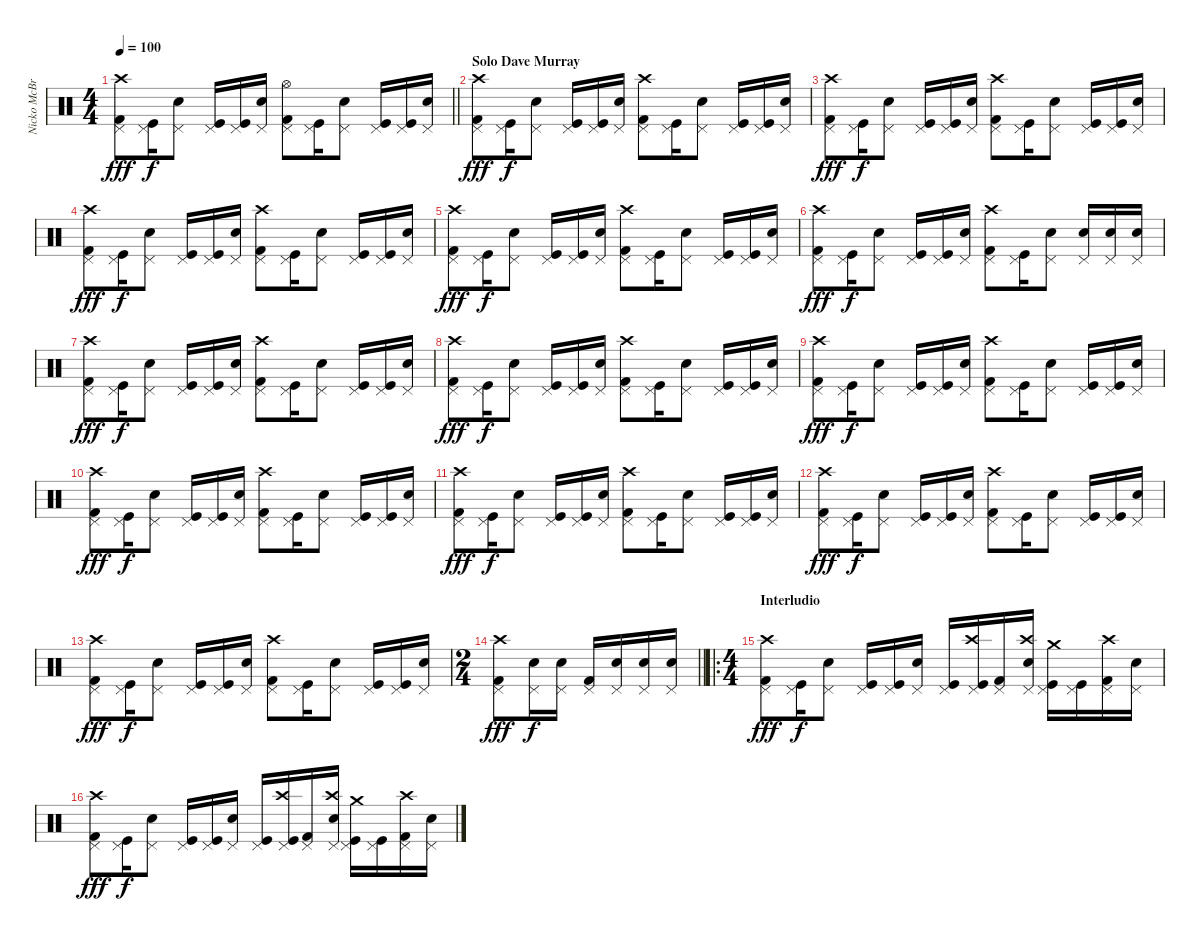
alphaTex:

\track ("Nicko McBrain" "Nicko McBr") {instrument percussion}
\staff {score}
\articulation defaults
\ts (4 4)
\tempo 100
\clef neutral
\barLineRight lightlight
\ks c
("Kick (hit) 2" "Pedal Hi-Hat (hit)" "Crash high (hit)").8{dy fff} ("Kick (hit)" "Pedal Hi-Hat (hit)").16{dy f} ("Snare (hit) 2" "Pedal Hi-Hat (hit)").8 ("Kick (hit)" "Pedal Hi-Hat (hit)").16 ("Kick (hit)" "Pedal Hi-Hat (hit)").16 ("Snare (hit) 2" "Pedal Hi-Hat (hit)").16 ("Kick (hit) 2" "Pedal Hi-Hat (hit)" "Hi-Hat (open)").8 ("Kick (hit)" "Pedal Hi-Hat (hit)").16 ("Snare (hit) 2" "Pedal Hi-Hat (hit)").8 ("Kick (hit)" "Pedal Hi-Hat (hit)").16 ("Kick (hit)" "Pedal Hi-Hat (hit)").16 ("Snare (hit) 2" "Pedal Hi-Hat (hit)").16 |
\section ("" "Solo Dave Murray")
("Kick (hit) 2" "Pedal Hi-Hat (hit)" "Crash high (hit)").8{dy fff} ("Kick (hit)" "Pedal Hi-Hat (hit)").16{dy f} ("Snare (hit) 2" "Pedal Hi-Hat (hit)").8 ("Kick (hit)" "Pedal Hi-Hat (hit)").16 ("Kick (hit)" "Pedal Hi-Hat (hit)").16 ("Snare (hit) 2" "Pedal Hi-Hat (hit)").16 ("Kick (hit) 2" "Pedal Hi-Hat (hit)" "Crash high (hit)").8 ("Kick (hit)" "Pedal Hi-Hat (hit)").16 ("Snare (hit) 2" "Pedal Hi-Hat (hit)").8 ("Kick (hit)" "Pedal Hi-Hat (hit)").16 ("Kick (hit)" "Pedal Hi-Hat (hit)").16 ("Snare (hit) 2" "Pedal Hi-Hat (hit)").16 |
("Kick (hit) 2" "Pedal Hi-Hat (hit)" "Crash high (hit)").8{dy fff} ("Kick (hit)" "Pedal Hi-Hat (hit)").16{dy f} ("Snare (hit) 2" "Pedal Hi-Hat (hit)").8 ("Kick (hit)" "Pedal Hi-Hat (hit)").16 ("Kick (hit)" "Pedal Hi-Hat (hit)").16 ("Snare (hit) 2" "Pedal Hi-Hat (hit)").16 ("Kick (hit) 2" "Pedal Hi-Hat (hit)" "Crash high (hit)").8 ("Kick (hit)" "Pedal Hi-Hat (hit)").16 ("Snare (hit) 2" "Pedal Hi-Hat (hit)").8 ("Kick (hit)" "Pedal Hi-Hat (hit)").16 ("Kick (hit)" "Pedal Hi-Hat (hit)").16 ("Snare (hit) 2" "Pedal Hi-Hat (hit)").16 |
("Kick (hit) 2" "Pedal Hi-Hat (hit)" "Crash high (hit)").8{dy fff} ("Kick (hit)" "Pedal Hi-Hat (hit)").16{dy f} ("Snare (hit) 2" "Pedal Hi-Hat (hit)").8 ("Kick (hit)" "Pedal Hi-Hat (hit)").16 ("Kick (hit)" "Pedal Hi-Hat (hit)").16 ("Snare (hit) 2" "Pedal Hi-Hat (hit)").16 ("Kick (hit) 2" "Pedal Hi-Hat (hit)" "Crash high (hit)").8 ("Kick (hit)" "Pedal Hi-Hat (hit)").16 ("Snare (hit) 2" "Pedal Hi-Hat (hit)").8 ("Kick (hit)" "Pedal Hi-Hat (hit)").16 ("Kick (hit)" "Pedal Hi-Hat (hit)").16 ("Snare (hit) 2" "Pedal Hi-Hat (hit)").16 |
("Kick (hit) 2" "Pedal Hi-Hat (hit)" "Crash high (hit)").8{dy fff} ("Kick (hit)" "Pedal Hi-Hat (hit)").16{dy f} ("Snare (hit) 2" "Pedal Hi-Hat (hit)").8 ("Kick (hit)" "Pedal Hi-Hat (hit)").16 ("Kick (hit)" "Pedal Hi-Hat (hit)").16 ("Snare (hit) 2" "Pedal Hi-Hat (hit)").16 ("Kick (hit) 2" "Pedal Hi-Hat (hit)" "Crash high (hit)").8 ("Kick (hit)" "Pedal Hi-Hat (hit)").16 ("Snare (hit) 2" "Pedal Hi-Hat (hit)").8 ("Kick (hit)" "Pedal Hi-Hat (hit)").16 ("Kick (hit)" "Pedal Hi-Hat (hit)").16 ("Snare (hit) 2" "Pedal Hi-Hat (hit)").16 |
("Kick (hit) 2" "Pedal Hi-Hat (hit)" "Crash high (hit)").8{dy fff} ("Kick (hit)" "Pedal Hi-Hat (hit)").16{dy f} ("Snare (hit) 2" "Pedal Hi-Hat (hit)").8 ("Kick (hit)" "Pedal Hi-Hat (hit)").16 ("Kick (hit)" "Pedal Hi-Hat (hit)").16 ("Snare (hit) 2" "Pedal Hi-Hat (hit)").16 ("Kick (hit) 2" "Pedal Hi-Hat (hit)" "Crash high (hit)").8 ("Kick (hit)" "Pedal Hi-Hat (hit)").16 ("Snare (hit) 2" "Pedal Hi-Hat (hit)").8 ("Snare (hit) 2" "Pedal Hi-Hat (hit)").16 ("Snare (hit) 2" "Pedal Hi-Hat (hit)").16 ("Snare (hit) 2" "Pedal Hi-Hat (hit)").16 |
("Kick (hit) 2" "Pedal Hi-Hat (hit)" "Crash high (hit)").8{dy fff} ("Kick (hit)" "Pedal Hi-Hat (hit)").16{dy f} ("Snare (hit) 2" "Pedal Hi-Hat (hit)").8 ("Kick (hit)" "Pedal Hi-Hat (hit)").16 ("Kick (hit)" "Pedal Hi-Hat (hit)").16 ("Snare (hit) 2" "Pedal Hi-Hat (hit)").16 ("Kick (hit) 2" "Pedal Hi-Hat (hit)" "Crash high (hit)").8 ("Kick (hit)" "Pedal Hi-Hat (hit)").16 ("Snare (hit) 2" "Pedal Hi-Hat (hit)").8 ("Kick (hit)" "Pedal Hi-Hat (hit)").16 ("Kick (hit)" "Pedal Hi-Hat (hit)").16 ("Snare (hit) 2" "Pedal Hi-Hat (hit)").16 |
("Kick (hit) 2" "Pedal Hi-Hat (hit)" "Crash high (hit)").8{dy fff} ("Kick (hit)" "Pedal Hi-Hat (hit)").16{dy f} ("Snare (hit) 2" "Pedal Hi-Hat (hit)").8 ("Kick (hit)" "Pedal Hi-Hat (hit)").16 ("Kick (hit)" "Pedal Hi-Hat (hit)").16 ("Snare (hit) 2" "Pedal Hi-Hat (hit)").16 ("Kick (hit) 2" "Pedal Hi-Hat (hit)" "Crash high (hit)").8 ("Kick (hit)" "Pedal Hi-Hat (hit)").16 ("Snare (hit) 2" "Pedal Hi-Hat (hit)").8 ("Kick (hit)" "Pedal Hi-Hat (hit)").16 ("Kick (hit)" "Pedal Hi-Hat (hit)").16 ("Snare (hit) 2" "Pedal Hi-Hat (hit)").16 |
("Kick (hit) 2" "Pedal Hi-Hat (hit)" "Crash high (hit)").8{dy fff} ("Kick (hit)" "Pedal Hi-Hat (hit)").16{dy f} ("Snare (hit) 2" "Pedal Hi-Hat (hit)").8 ("Kick (hit)" "Pedal Hi-Hat (hit)").16 ("Kick (hit)" "Pedal Hi-Hat (hit)").16 ("Snare (hit) 2" "Pedal Hi-Hat (hit)").16 ("Kick (hit) 2" "Pedal Hi-Hat (hit)" "Crash high (hit)").8 ("Kick (hit)" "Pedal Hi-Hat (hit)").16 ("Snare (hit) 2" "Pedal Hi-Hat (hit)").8 ("Kick (hit)" "Pedal Hi-Hat (hit)").16 ("Kick (hit)" "Pedal Hi-Hat (hit)").16 ("Snare (hit) 2" "Pedal Hi-Hat (hit)").16 |
("Kick (hit) 2" "Pedal Hi-Hat (hit)" "Crash high (hit)").8{dy fff} ("Kick (hit)" "Pedal Hi-Hat (hit)").16{dy f} ("Snare (hit) 2" "Pedal Hi-Hat (hit)").8 ("Kick (hit)" "Pedal Hi-Hat (hit)").16 ("Kick (hit)" "Pedal Hi-Hat (hit)").16 ("Snare (hit) 2" "Pedal Hi-Hat (hit)").16 ("Kick (hit) 2" "Pedal Hi-Hat (hit)" "Crash high (hit)").8 ("Kick (hit)" "Pedal Hi-Hat (hit)").16 ("Snare (hit) 2" "Pedal Hi-Hat (hit)").8 ("Kick (hit)" "Pedal Hi-Hat (hit)").16 ("Kick (hit)" "Pedal Hi-Hat (hit)").16 ("Snare (hit) 2" "Pedal Hi-Hat (hit)").16 |
("Kick (hit) 2" "Pedal Hi-Hat (hit)" "Crash high (hit)").8{dy fff} ("Kick (hit)" "Pedal Hi-Hat (hit)").16{dy f} ("Snare (hit) 2" "Pedal Hi-Hat (hit)").8 ("Kick (hit)" "Pedal Hi-Hat (hit)").16 ("Kick (hit)" "Pedal Hi-Hat (hit)").16 ("Snare (hit) 2" "Pedal Hi-Hat (hit)").16 ("Kick (hit) 2" "Pedal Hi-Hat (hit)" "Crash high (hit)").8 ("Kick (hit)" "Pedal Hi-Hat (hit)").16 ("Snare (hit) 2" "Pedal Hi-Hat (hit)").8 ("Kick (hit)" "Pedal Hi-Hat (hit)").16 ("Kick (hit)" "Pedal Hi-Hat (hit)").16 ("Snare (hit) 2" "Pedal Hi-Hat (hit)").16 |
("Kick (hit) 2" "Pedal Hi-Hat (hit)" "Crash high (hit)").8{dy fff} ("Kick (hit)" "Pedal Hi-Hat (hit)").16{dy f} ("Snare (hit) 2" "Pedal Hi-Hat (hit)").8 ("Kick (hit)" "Pedal Hi-Hat (hit)").16 ("Kick (hit)" "Pedal Hi-Hat (hit)").16 ("Snare (hit) 2" "Pedal Hi-Hat (hit)").16 ("Kick (hit) 2" "Pedal Hi-Hat (hit)" "Crash high (hit)").8 ("Kick (hit)" "Pedal Hi-Hat (hit)").16 ("Snare (hit) 2" "Pedal Hi-Hat (hit)").8 ("Kick (hit)" "Pedal Hi-Hat (hit)").16 ("Kick (hit)" "Pedal Hi-Hat (hit)").16 ("Snare (hit) 2" "Pedal Hi-Hat (hit)").16 |
("Kick (hit) 2" "Pedal Hi-Hat (hit)" "Crash high (hit)").8{dy fff} ("Kick (hit)" "Pedal Hi-Hat (hit)").16{dy f} ("Snare (hit) 2" "Pedal Hi-Hat (hit)").8 ("Kick (hit)" "Pedal Hi-Hat (hit)").16 ("Kick (hit)" "Pedal Hi-Hat (hit)").16 ("Snare (hit) 2" "Pedal Hi-Hat (hit)").16 ("Kick (hit) 2" "Pedal Hi-Hat (hit)" "Crash high (hit)").8 ("Kick (hit)" "Pedal Hi-Hat (hit)").16 ("Snare (hit) 2" "Pedal Hi-Hat (hit)").8 ("Kick (hit)" "Pedal Hi-Hat (hit)").16 ("Kick (hit)" "Pedal Hi-Hat (hit)").16 ("Snare (hit) 2" "Pedal Hi-Hat (hit)").16 |
\ts (2 4)
\barLineRight lightlight
("Kick (hit) 2" "Pedal Hi-Hat (hit)" "Crash high (hit)").8{dy fff} ("Snare (hit) 2" "Pedal Hi-Hat (hit)").16{dy f} ("Snare (hit) 2" "Pedal Hi-Hat (hit)").16 ("Kick (hit) 2" "Pedal Hi-Hat (hit)").16 ("Snare (hit) 2" "Pedal Hi-Hat (hit)").16 ("Snare (hit) 2" "Pedal Hi-Hat (hit)").16 ("Snare (hit) 2" "Pedal Hi-Hat (hit)").16 |
\ro
\ts (4 4)
\section ("" "Interludio")
("Kick (hit) 2" "Pedal Hi-Hat (hit)" "Crash high (hit)").8{dy fff} ("Kick (hit)" "Pedal Hi-Hat (hit)").16{dy f} ("Snare (hit) 2" "Pedal Hi-Hat (hit)").8 ("Kick (hit)" "Pedal Hi-Hat (hit)").16 ("Kick (hit)" "Pedal Hi-Hat (hit)").16 ("Snare (hit) 2" "Pedal Hi-Hat (hit)").16 ("Kick (hit)" "Pedal Hi-Hat (hit)").16 ("Kick (hit)" "Pedal Hi-Hat (hit)" "Crash high (hit)").16 ("Kick (hit) 2" "Pedal Hi-Hat (hit)").16 ("Snare (hit) 2" "Pedal Hi-Hat (hit)" "Crash high (hit)").16 ("Kick (hit)" "Pedal Hi-Hat (hit)" "Crash medium (hit)").16 ("Kick (hit)" "Pedal Hi-Hat (hit)").16 ("Kick (hit) 2" "Pedal Hi-Hat (hit)" "Crash high (hit)").16 ("Snare (hit) 2" "Pedal Hi-Hat (hit)").16 |
("Kick (hit) 2" "Pedal Hi-Hat (hit)" "Crash high (hit)").8{dy fff} ("Kick (hit)" "Pedal Hi-Hat (hit)").16{dy f} ("Snare (hit) 2" "Pedal Hi-Hat (hit)").8 ("Kick (hit)" "Pedal Hi-Hat (hit)").16 ("Kick (hit)" "Pedal Hi-Hat (hit)").16 ("Snare (hit) 2" "Pedal Hi-Hat (hit)").16 ("Kick (hit)" "Pedal Hi-Hat (hit)").16 ("Kick (hit)" "Pedal Hi-Hat (hit)" "Crash high (hit)").16 ("Kick (hit) 2" "Pedal Hi-Hat (hit)").16 ("Snare (hit) 2" "Pedal Hi-Hat (hit)" "Crash high (hit)").16 ("Kick (hit)" "Pedal Hi-Hat (hit)" "Crash medium (hit)").16 ("Kick (hit)" "Pedal Hi-Hat (hit)").16 ("Kick (hit) 2" "Pedal Hi-Hat (hit)" "Crash high (hit)").16 ("Snare (hit) 2" "Pedal Hi-Hat (hit)").16
